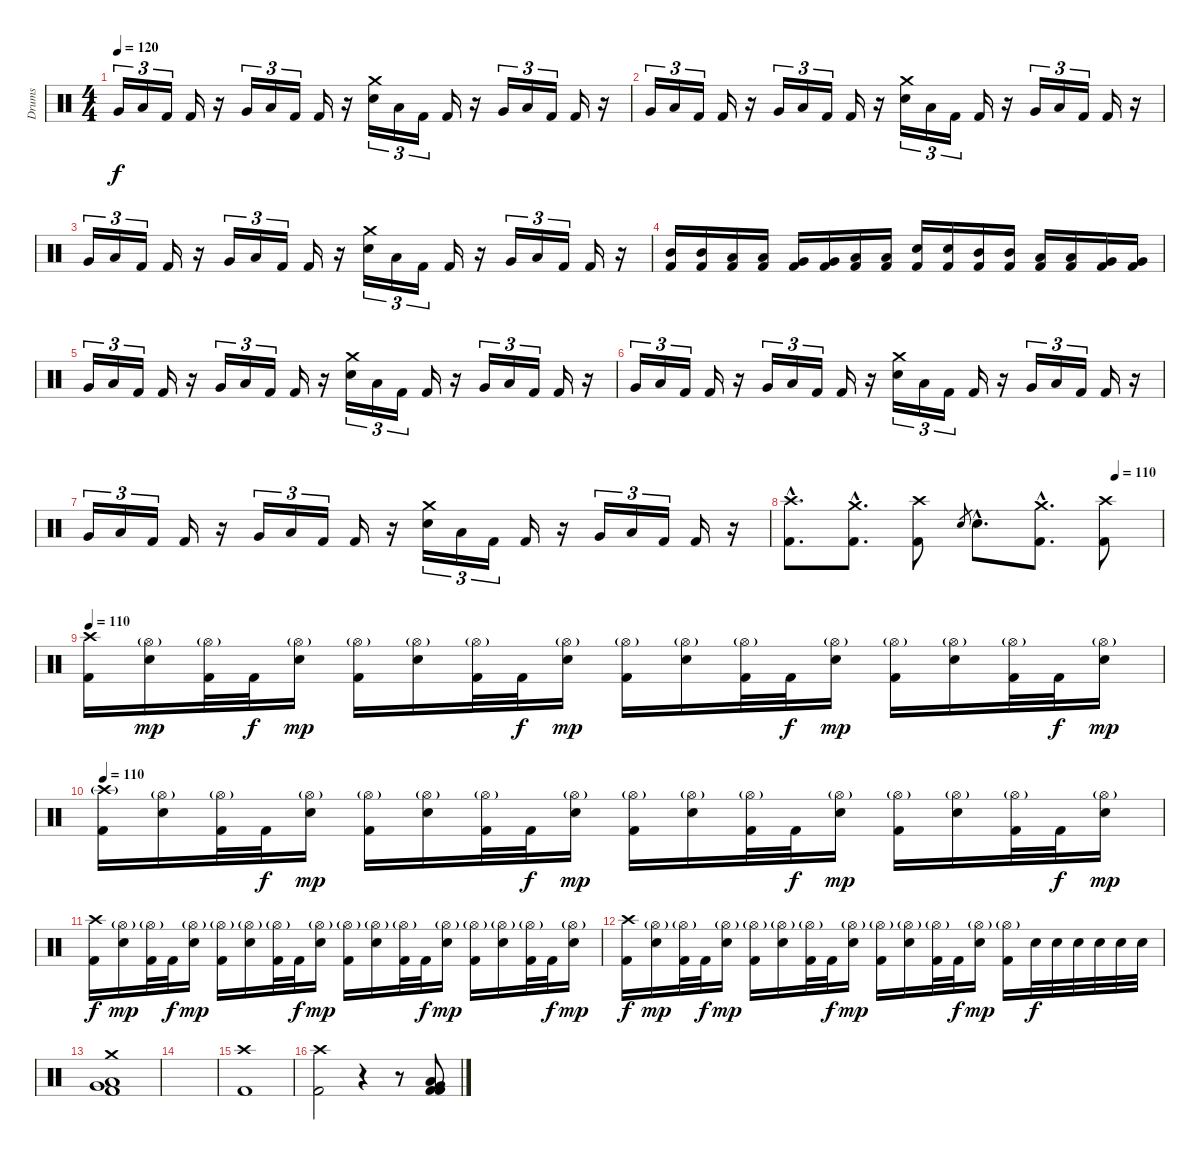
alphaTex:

\track ("Drums" "Drums") {instrument percussion}
\staff {score}
\articulation defaults
\ts (4 4)
\tempo 120
\clef neutral
\ks c "Very Low Tom (hit)".16{tu (3 2) dy f} "Low Floor Tom (hit)".16{tu (3 2)} "Kick (hit) 2".16{tu (3 2)} "Kick (hit) 2".16
r.16 "Very Low Tom (hit)".16{tu (3 2)} "Low Floor Tom (hit)".16{tu (3 2)} "Kick (hit) 2".16{tu (3 2)} "Kick (hit) 2".16 r.16 ("Crash medium (hit)" "Snare (hit) 2").16{tu (3 2)} "Low Floor Tom (hit)".16{tu (3 2)} "Kick (hit) 2".16{tu (3 2)} "Kick (hit) 2".16 r.16 "Very Low Tom (hit)".16{tu (3 2)} "Low Floor Tom (hit)".16{tu (3 2)} "Kick (hit) 2".16{tu (3 2)} "Kick (hit) 2".16 r.16 |
"Very Low Tom (hit)".16{tu (3 2)} "Low Floor Tom (hit)".16{tu (3 2)} "Kick (hit) 2".16{tu (3 2)} "Kick (hit) 2".16 r.16 "Very Low Tom (hit)".16{tu (3 2)} "Low Floor Tom (hit)".16{tu (3 2)} "Kick (hit) 2".16{tu (3 2)} "Kick (hit) 2".16 r.16 ("Crash medium (hit)" "Snare (hit) 2").16{tu (3 2)} "Low Floor Tom (hit)".16{tu (3 2)} "Kick (hit) 2".16{tu (3 2)} "Kick (hit) 2".16 r.16 "Very Low Tom (hit)".16{tu (3 2)} "Low Floor Tom (hit)".16{tu (3 2)} "Kick (hit) 2".16{tu (3 2)} "Kick (hit) 2".16 r.16 |
"Very Low Tom (hit)".16{tu (3 2)} "Low Floor Tom (hit)".16{tu (3 2)} "Kick (hit) 2".16{tu (3 2)} "Kick (hit) 2".16 r.16 "Very Low Tom (hit)".16{tu (3 2)} "Low Floor Tom (hit)".16{tu (3 2)} "Kick (hit) 2".16{tu (3 2)} "Kick (hit) 2".16 r.16 ("Crash medium (hit)" "Snare (hit) 2").16{tu (3 2)} "Low Floor Tom (hit)".16{tu (3 2)} "Kick (hit) 2".16{tu (3 2)} "Kick (hit) 2".16 r.16 "Very Low Tom (hit)".16{tu (3 2)} "Low Floor Tom (hit)".16{tu (3 2)} "Kick (hit) 2".16{tu (3 2)} "Kick (hit) 2".16 r.16 |
("Kick (hit) 2" "Mid Tom (hit)").16 ("Kick (hit) 2" "Mid Tom (hit)").16 ("Kick (hit) 2" "Low Tom (hit)").16 ("Kick (hit) 2" "Low Tom (hit)").16 ("Kick (hit) 2" "Very Low Tom (hit)").16 ("Kick (hit) 2" "Very Low Tom (hit)").16 ("Kick (hit) 2" "Low Floor Tom (hit)").16 ("Kick (hit) 2" "Low Floor Tom (hit)").16 ("Kick (hit) 2" "Snare (hit) 2").16 ("Kick (hit) 2" "Snare (hit) 2").16 ("Kick (hit) 2" "Mid Tom (hit)").16 ("Kick (hit) 2" "Mid Tom (hit)").16 ("Kick (hit) 2" "Low Tom (hit)").16 ("Kick (hit) 2" "Low Tom (hit)").16 ("Kick (hit) 2" "Very Low Tom (hit)").16 ("Kick (hit) 2" "Very Low Tom (hit)").16 |
"Very Low Tom (hit)".16{tu (3 2)} "Low Floor Tom (hit)".16{tu (3 2)} "Kick (hit) 2".16{tu (3 2)} "Kick (hit) 2".16 r.16 "Very Low Tom (hit)".16{tu (3 2)} "Low Floor Tom (hit)".16{tu (3 2)} "Kick (hit) 2".16{tu (3 2)} "Kick (hit) 2".16 r.16 ("Crash medium (hit)" "Snare (hit) 2").16{tu (3 2)} "Low Floor Tom (hit)".16{tu (3 2)} "Kick (hit) 2".16{tu (3 2)} "Kick (hit) 2".16 r.16 "Very Low Tom (hit)".16{tu (3 2)} "Low Floor Tom (hit)".16{tu (3 2)} "Kick (hit) 2".16{tu (3 2)} "Kick (hit) 2".16 r.16 |
"Very Low Tom (hit)".16{tu (3 2)} "Low Floor Tom (hit)".16{tu (3 2)} "Kick (hit) 2".16{tu (3 2)} "Kick (hit) 2".16 r.16 "Very Low Tom (hit)".16{tu (3 2)} "Low Floor Tom (hit)".16{tu (3 2)} "Kick (hit) 2".16{tu (3 2)} "Kick (hit) 2".16 r.16 ("Crash medium (hit)" "Snare (hit) 2").16{tu (3 2)} "Low Floor Tom (hit)".16{tu (3 2)} "Kick (hit) 2".16{tu (3 2)} "Kick (hit) 2".16 r.16 "Very Low Tom (hit)".16{tu (3 2)} "Low Floor Tom (hit)".16{tu (3 2)} "Kick (hit) 2".16{tu (3 2)} "Kick (hit) 2".16 r.16 |
"Very Low Tom (hit)".16{tu (3 2)} "Low Floor Tom (hit)".16{tu (3 2)} "Kick (hit) 2".16{tu (3 2)} "Kick (hit) 2".16 r.16 "Very Low Tom (hit)".16{tu (3 2)} "Low Floor Tom (hit)".16{tu (3 2)} "Kick (hit) 2".16{tu (3 2)} "Kick (hit) 2".16 r.16 ("Crash medium (hit)" "Snare (hit) 2").16{tu (3 2)} "Low Floor Tom (hit)".16{tu (3 2)} "Kick (hit) 2".16{tu (3 2)} "Kick (hit) 2".16 r.16 "Very Low Tom (hit)".16{tu (3 2)} "Low Floor Tom (hit)".16{tu (3 2)} "Kick (hit) 2".16{tu (3 2)} "Kick (hit) 2".16 r.16 |
\tempo (110 0.875)
("Crash high (hit)"{hac} "Kick (hit) 2"{hac}).8{d} ("Crash medium (hit)"{hac} "Kick (hit) 2"{hac}).8{d} ("Crash high (hit)" "Kick (hit) 2").8 "Snare (hit) 2".8{gr} "Snare (hit) 2"{hac}.8{d} ("Crash medium (hit)"{hac} "Kick (hit) 2"{hac}).8{d} ("Crash high (hit)" "Kick (hit) 2").8 |
\tempo 110
("Crash high (hit)" "Kick (hit) 2").16 ("Hi-Hat (open)"{g} "Snare (hit) 2").16{dy mp} ("Hi-Hat (open)"{g} "Kick (hit) 2").32 "Kick (hit) 2".32{dy f} ("Hi-Hat (open)"{g} "Snare (hit) 2").16{dy mp} ("Hi-Hat (open)"{g} "Kick (hit) 2").16 ("Hi-Hat (open)"{g} "Snare (hit) 2").16 ("Hi-Hat (open)"{g} "Kick (hit) 2").32 "Kick (hit) 2".32{dy f} ("Hi-Hat (open)"{g} "Snare (hit) 2").16{dy mp} ("Hi-Hat (open)"{g} "Kick (hit) 2").16 ("Hi-Hat (open)"{g} "Snare (hit) 2").16 ("Hi-Hat (open)"{g} "Kick (hit) 2").32 "Kick (hit) 2".32{dy f} ("Hi-Hat (open)"{g} "Snare (hit) 2").16{dy mp} ("Hi-Hat (open)"{g} "Kick (hit) 2").16 ("Hi-Hat (open)"{g} "Snare (hit) 2").16 ("Hi-Hat (open)"{g} "Kick (hit) 2").32 "Kick (hit) 2".32{dy f} ("Hi-Hat (open)"{g} "Snare (hit) 2").16{dy mp} |
\tempo 110
("Crash high (hit)"{g} "Kick (hit) 2").16 ("Hi-Hat (open)"{g} "Snare (hit) 2").16 ("Hi-Hat (open)"{g} "Kick (hit) 2").32 "Kick (hit) 2".32{dy f} ("Hi-Hat (open)"{g} "Snare (hit) 2").16{dy mp} ("Hi-Hat (open)"{g} "Kick (hit) 2").16 ("Hi-Hat (open)"{g} "Snare (hit) 2").16 ("Hi-Hat (open)"{g} "Kick (hit) 2").32 "Kick (hit) 2".32{dy f} ("Hi-Hat (open)"{g} "Snare (hit) 2").16{dy mp} ("Hi-Hat (open)"{g} "Kick (hit) 2").16 ("Hi-Hat (open)"{g} "Snare (hit) 2").16 ("Hi-Hat (open)"{g} "Kick (hit) 2").32 "Kick (hit) 2".32{dy f} ("Hi-Hat (open)"{g} "Snare (hit) 2").16{dy mp} ("Hi-Hat (open)"{g} "Kick (hit) 2").16 ("Hi-Hat (open)"{g} "Snare (hit) 2").16 ("Hi-Hat (open)"{g} "Kick (hit) 2").32 "Kick (hit) 2".32{dy f} ("Hi-Hat (open)"{g} "Snare (hit) 2").16{dy mp} |
("Crash high (hit)" "Kick (hit) 2").16{dy f} ("Hi-Hat (open)"{g} "Snare (hit) 2").16{dy mp} ("Hi-Hat (open)"{g} "Kick (hit) 2").32 "Kick (hit) 2".32{dy f} ("Hi-Hat (open)"{g} "Snare (hit) 2").16{dy mp} ("Hi-Hat (open)"{g} "Kick (hit) 2").16 ("Hi-Hat (open)"{g} "Snare (hit) 2").16 ("Hi-Hat (open)"{g} "Kick (hit) 2").32 "Kick (hit) 2".32{dy f} ("Hi-Hat (open)"{g} "Snare (hit) 2").16{dy mp} ("Hi-Hat (open)"{g} "Kick (hit) 2").16 ("Hi-Hat (open)"{g} "Snare (hit) 2").16 ("Hi-Hat (open)"{g} "Kick (hit) 2").32 "Kick (hit) 2".32{dy f} ("Hi-Hat (open)"{g} "Snare (hit) 2").16{dy mp} ("Hi-Hat (open)"{g} "Kick (hit) 2").16 ("Hi-Hat (open)"{g} "Snare (hit) 2").16 ("Hi-Hat (open)"{g} "Kick (hit) 2").32 "Kick (hit) 2".32{dy f} ("Hi-Hat (open)"{g} "Snare (hit) 2").16{dy mp} |
("Crash high (hit)" "Kick (hit) 2").16{dy f} ("Hi-Hat (open)"{g} "Snare (hit) 2").16{dy mp} ("Hi-Hat (open)"{g} "Kick (hit) 2").32 "Kick (hit) 2".32{dy f} ("Hi-Hat (open)"{g} "Snare (hit) 2").16{dy mp} ("Hi-Hat (open)"{g} "Kick (hit) 2").16 ("Hi-Hat (open)"{g} "Snare (hit) 2").16 ("Hi-Hat (open)"{g} "Kick (hit) 2").32 "Kick (hit) 2".32{dy f} ("Hi-Hat (open)"{g} "Snare (hit) 2").16{dy mp} ("Hi-Hat (open)"{g} "Kick (hit) 2").16 ("Hi-Hat (open)"{g} "Snare (hit) 2").16 ("Hi-Hat (open)"{g} "Kick (hit) 2").32 "Kick (hit) 2".32{dy f} ("Hi-Hat (open)"{g} "Snare (hit) 2").16{dy mp} ("Hi-Hat (open)"{g} "Kick (hit) 2").16 "Snare (hit) 2".32{dy f} "Snare (hit) 2".32 "Snare (hit) 2".32 "Snare (hit) 2".32 "Snare (hit) 2".32 "Snare (hit) 2".32 |
("Crash medium (hit)" "Very Low Tom (hit)" "Low Floor Tom (hit)" "Kick (hit) 2").1 |
|
("Crash high (hit)" "Kick (hit) 2").1 |
("Crash high (hit)" "Kick (hit) 2").2 r.4 r.8 ("Very Low Tom (hit)" "Kick (hit) 2" "Kick (hit) 2" "Low Floor Tom (hit)").8
